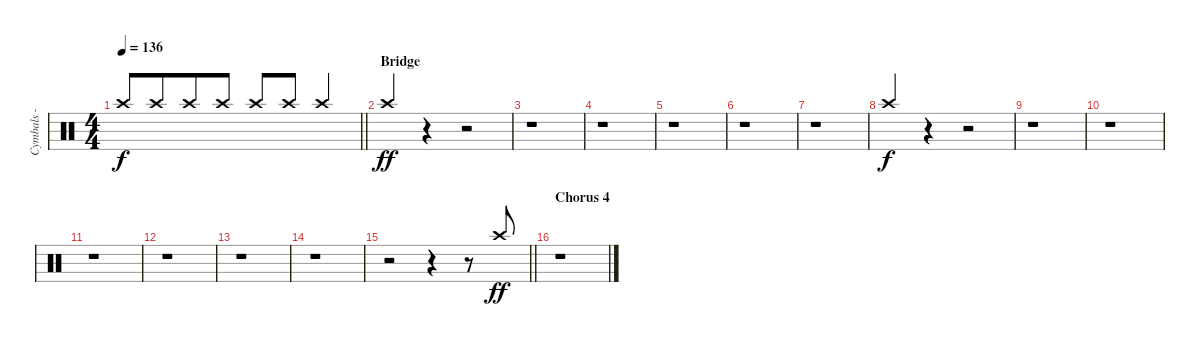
\track ("Cymbals - crash - left" "Cymbals - ") {instrument percussion}
\staff {score}
\articulation defaults
\ts (4 4)
\tempo 136
\clef neutral
\barLineRight lightlight
\ks c "Crash high (hit)".8{dy f beam Up} "Crash high (hit)".8{beam Up beam merge} "Crash high (hit)".8{beam Up} "Crash high (hit)".8{beam Up} "Crash high (hit)".8{beam Up} "Crash high (hit)".8{beam Up beam merge} "Crash high (hit)".4{beam Up}
|
\section ("" "Bridge")
"Crash high (hit)".4{dy ff beam Up} r.4 r.2 |
r.1 |
r.1 |
r.1 |
r.1 |
r.1 |
"Crash high (hit)".4{dy f beam Up} r.4 r.2 |
r.1 |
r.1 |
r.1 |
r.1 |
r.1 |
r.1 |
\barLineRight lightlight
r.2 r.4 r.8 "Crash high (hit)".8{dy ff volume 6 beam Up} |
\section ("" "Chorus 4")
r.1
